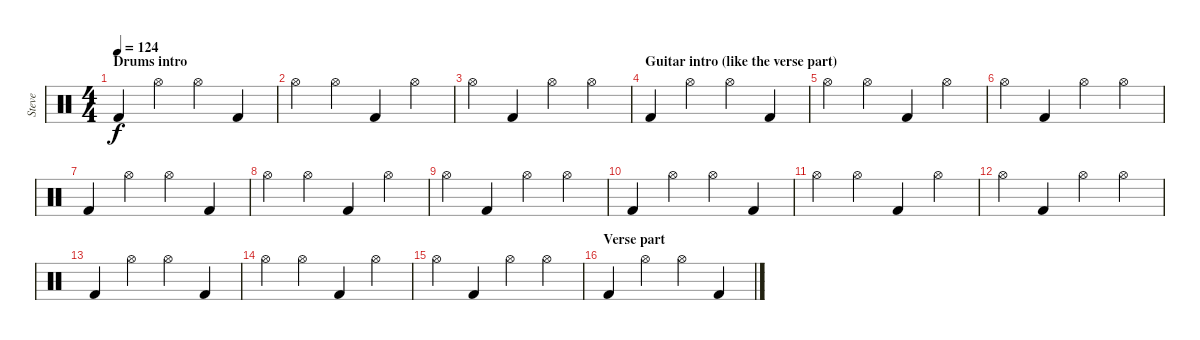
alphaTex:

\track ("Steve" "Steve") {instrument percussion}
\staff {score}
\articulation defaults
\ts (4 4)
\section ("" "Drums intro")
\tempo 124
\clef neutral
\ks c "Kick (hit) 2".4{dy f} "Hi-Hat (open)".4 "Hi-Hat (open)".4 "Kick (hit) 2".4
|
"Hi-Hat (open)".4 "Hi-Hat (open)".4 "Kick (hit) 2".4 "Hi-Hat (open)".4 |
"Hi-Hat (open)".4 "Kick (hit) 2".4 "Hi-Hat (open)".4 "Hi-Hat (open)".4 |
\section ("" "Guitar intro (like the verse part)")
"Kick (hit) 2".4 "Hi-Hat (open)".4 "Hi-Hat (open)".4 "Kick (hit) 2".4 |
"Hi-Hat (open)".4 "Hi-Hat (open)".4 "Kick (hit) 2".4 "Hi-Hat (open)".4 |
"Hi-Hat (open)".4 "Kick (hit) 2".4 "Hi-Hat (open)".4 "Hi-Hat (open)".4 |
"Kick (hit) 2".4 "Hi-Hat (open)".4 "Hi-Hat (open)".4 "Kick (hit) 2".4 |
"Hi-Hat (open)".4 "Hi-Hat (open)".4 "Kick (hit) 2".4 "Hi-Hat (open)".4 |
"Hi-Hat (open)".4 "Kick (hit) 2".4 "Hi-Hat (open)".4 "Hi-Hat (open)".4 |
"Kick (hit) 2".4 "Hi-Hat (open)".4 "Hi-Hat (open)".4 "Kick (hit) 2".4 |
"Hi-Hat (open)".4 "Hi-Hat (open)".4 "Kick (hit) 2".4 "Hi-Hat (open)".4 |
"Hi-Hat (open)".4 "Kick (hit) 2".4 "Hi-Hat (open)".4 "Hi-Hat (open)".4 |
"Kick (hit) 2".4 "Hi-Hat (open)".4 "Hi-Hat (open)".4 "Kick (hit) 2".4 |
"Hi-Hat (open)".4 "Hi-Hat (open)".4 "Kick (hit) 2".4 "Hi-Hat (open)".4 |
"Hi-Hat (open)".4 "Kick (hit) 2".4 "Hi-Hat (open)".4 "Hi-Hat (open)".4 |
\section ("" "Verse part")
"Kick (hit) 2".4 "Hi-Hat (open)".4 "Hi-Hat (open)".4 "Kick (hit) 2".4
